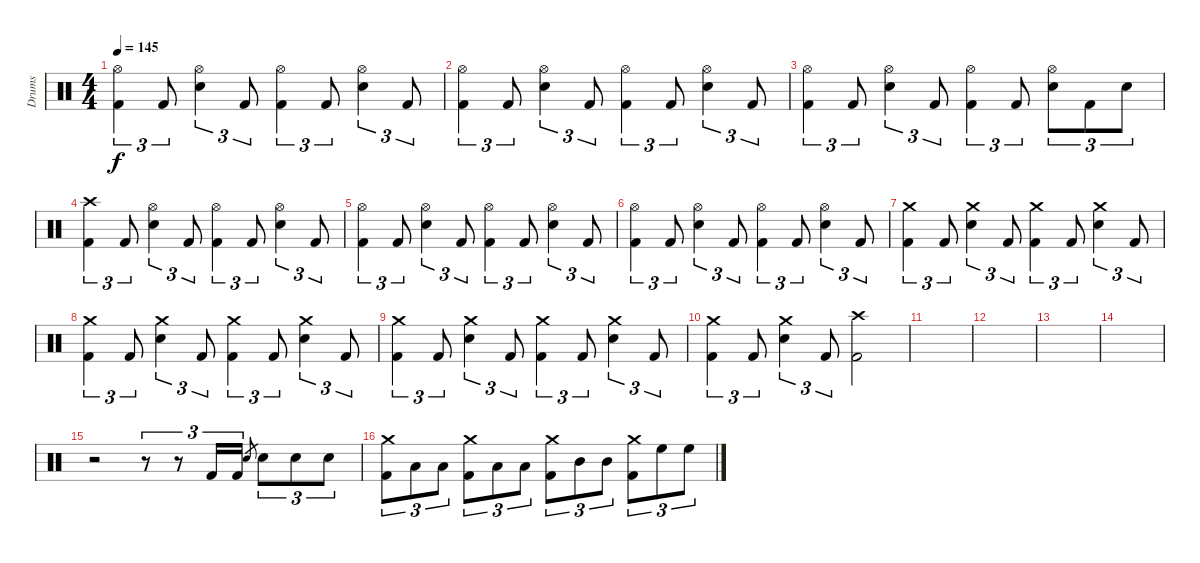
\track ("Drums" "Drums") {instrument percussion}
\staff {score}
\articulation defaults
\ts (4 4)
\tempo 145
\clef neutral
\ks c
("Hi-Hat (open)" "Kick (hit) 2").4{tu (3 2) dy f} "Kick (hit) 2".8{tu (3 2)} ("Hi-Hat (open)" "Electric Snare (hit)").4{tu (3 2)} "Kick (hit) 2".8{tu (3 2)} ("Hi-Hat (open)" "Kick (hit) 2").4{tu (3 2)} "Kick (hit) 2".8{tu (3 2)} ("Hi-Hat (open)" "Electric Snare (hit)").4{tu (3 2)} "Kick (hit) 2".8{tu (3 2)} |
("Hi-Hat (open)" "Kick (hit) 2").4{tu (3 2)} "Kick (hit) 2".8{tu (3 2)} ("Hi-Hat (open)" "Electric Snare (hit)").4{tu (3 2)} "Kick (hit) 2".8{tu (3 2)} ("Hi-Hat (open)" "Kick (hit) 2").4{tu (3 2)} "Kick (hit) 2".8{tu (3 2)} ("Hi-Hat (open)" "Electric Snare (hit)").4{tu (3 2)} "Kick (hit) 2".8{tu (3 2)} |
("Hi-Hat (open)" "Kick (hit) 2").4{tu (3 2)} "Kick (hit) 2".8{tu (3 2)} ("Hi-Hat (open)" "Electric Snare (hit)").4{tu (3 2)} "Kick (hit) 2".8{tu (3 2)} ("Hi-Hat (open)" "Kick (hit) 2").4{tu (3 2)} "Kick (hit) 2".8{tu (3 2)} ("Hi-Hat (open)" "Electric Snare (hit)").8{tu (3 2)} "Kick (hit) 2".8{tu (3 2)} "Electric Snare (hit)".8{tu (3 2)} |
("Crash high (hit)" "Kick (hit) 2").4{tu (3 2)} "Kick (hit) 2".8{tu (3 2)} ("Hi-Hat (open)" "Electric Snare (hit)").4{tu (3 2)} "Kick (hit) 2".8{tu (3 2)} ("Hi-Hat (open)" "Kick (hit) 2").4{tu (3 2)} "Kick (hit) 2".8{tu (3 2)} ("Hi-Hat (open)" "Electric Snare (hit)").4{tu (3 2)} "Kick (hit) 2".8{tu (3 2)} |
("Hi-Hat (open)" "Kick (hit) 2").4{tu (3 2)} "Kick (hit) 2".8{tu (3 2)} ("Hi-Hat (open)" "Electric Snare (hit)").4{tu (3 2)} "Kick (hit) 2".8{tu (3 2)} ("Hi-Hat (open)" "Kick (hit) 2").4{tu (3 2)} "Kick (hit) 2".8{tu (3 2)} ("Hi-Hat (open)" "Electric Snare (hit)").4{tu (3 2)} "Kick (hit) 2".8{tu (3 2)} |
("Hi-Hat (open)" "Kick (hit) 2").4{tu (3 2)} "Kick (hit) 2".8{tu (3 2)} ("Hi-Hat (open)" "Electric Snare (hit)").4{tu (3 2)} "Kick (hit) 2".8{tu (3 2)} ("Hi-Hat (open)" "Kick (hit) 2").4{tu (3 2)} "Kick (hit) 2".8{tu (3 2)} ("Hi-Hat (open)" "Electric Snare (hit)").4{tu (3 2)} "Kick (hit) 2".8{tu (3 2)} |
("Crash medium (hit)" "Kick (hit) 2").4{tu (3 2)} "Kick (hit) 2".8{tu (3 2)} ("Crash medium (hit)" "Electric Snare (hit)").4{tu (3 2)} "Kick (hit) 2".8{tu (3 2)} ("Crash medium (hit)" "Kick (hit) 2").4{tu (3 2)} "Kick (hit) 2".8{tu (3 2)} ("Crash medium (hit)" "Electric Snare (hit)").4{tu (3 2)} "Kick (hit) 2".8{tu (3 2)} |
("Crash medium (hit)" "Kick (hit) 2").4{tu (3 2)} "Kick (hit) 2".8{tu (3 2)} ("Crash medium (hit)" "Electric Snare (hit)").4{tu (3 2)} "Kick (hit) 2".8{tu (3 2)} ("Crash medium (hit)" "Kick (hit) 2").4{tu (3 2)} "Kick (hit) 2".8{tu (3 2)} ("Crash medium (hit)" "Electric Snare (hit)").4{tu (3 2)} "Kick (hit) 2".8{tu (3 2)} |
("Crash medium (hit)" "Kick (hit) 2").4{tu (3 2)} "Kick (hit) 2".8{tu (3 2)} ("Crash medium (hit)" "Electric Snare (hit)").4{tu (3 2)} "Kick (hit) 2".8{tu (3 2)} ("Crash medium (hit)" "Kick (hit) 2").4{tu (3 2)} "Kick (hit) 2".8{tu (3 2)} ("Crash medium (hit)" "Electric Snare (hit)").4{tu (3 2)} "Kick (hit) 2".8{tu (3 2)} |
("Crash medium (hit)" "Kick (hit) 2").4{tu (3 2)} "Kick (hit) 2".8{tu (3 2)} ("Crash medium (hit)" "Electric Snare (hit)").4{tu (3 2)} "Kick (hit) 2".8{tu (3 2)} ("Crash high (hit)" "Kick (hit) 2").2 |
|
|
|
|
r.2 r.8{tu (3 2)} r.8{tu (3 2)} "Kick (hit) 2".16{tu (3 2)} "Kick (hit) 2".16{tu (3 2)} "Electric Snare (hit)".8{gr} "Electric Snare (hit)".8{tu (3 2)} "Electric Snare (hit)".8{tu (3 2)} "Electric Snare (hit)".8{tu (3 2)} |
("Crash medium (hit)" "Kick (hit) 2").8{tu (3 2)} "Low Floor Tom (hit)".8{tu (3 2)} "Low Floor Tom (hit)".8{tu (3 2)} ("Crash medium (hit)" "Kick (hit) 2").8{tu (3 2)} "Low Tom (hit)".8{tu (3 2)} "Low Tom (hit)".8{tu (3 2)} ("Crash medium (hit)" "Kick (hit) 2").8{tu (3 2)} "Mid Tom (hit)".8{tu (3 2)} "Mid Tom (hit)".8{tu (3 2)} ("Crash medium (hit)" "Kick (hit) 2").8{tu (3 2)} "High Floor Tom (hit)".8{tu (3 2)} "High Floor Tom (hit)".8{tu (3 2)}
